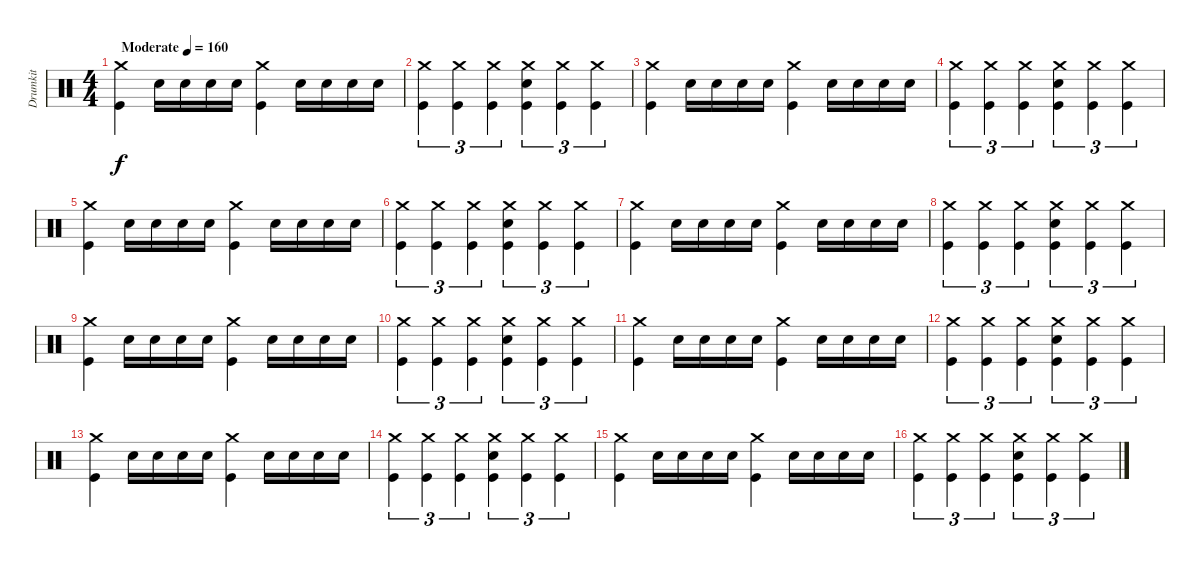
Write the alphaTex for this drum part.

\track ("Drumkit" "Drumkit") {instrument percussion}
\staff {score}
\articulation defaults
\ts (4 4)
\tempo (160 "Moderate")
\clef neutral
\ks c
("Crash medium (hit)" "Kick (hit)").4{dy f} "Snare (hit) 2".16 "Snare (hit) 2".16 "Snare (hit) 2".16 "Snare (hit) 2".16 ("Crash medium (hit)" "Kick (hit)").4 "Snare (hit) 2".16 "Snare (hit) 2".16 "Snare (hit) 2".16 "Snare (hit) 2".16 |
("Crash medium (hit)" "Kick (hit)").4{tu (3 2)} ("Crash medium (hit)" "Kick (hit)").4{tu (3 2)} ("Crash medium (hit)" "Kick (hit)").4{tu (3 2)} ("Crash medium (hit)" "Snare (hit) 2" "Kick (hit)").4{tu (3 2)} ("Crash medium (hit)" "Kick (hit)").4{tu (3 2)} ("Crash medium (hit)" "Kick (hit)").4{tu (3 2)} |
("Crash medium (hit)" "Kick (hit)").4 "Snare (hit) 2".16 "Snare (hit) 2".16 "Snare (hit) 2".16 "Snare (hit) 2".16 ("Crash medium (hit)" "Kick (hit)").4 "Snare (hit) 2".16 "Snare (hit) 2".16 "Snare (hit) 2".16 "Snare (hit) 2".16 |
("Crash medium (hit)" "Kick (hit)").4{tu (3 2)} ("Crash medium (hit)" "Kick (hit)").4{tu (3 2)} ("Crash medium (hit)" "Kick (hit)").4{tu (3 2)} ("Crash medium (hit)" "Snare (hit) 2" "Kick (hit)").4{tu (3 2)} ("Crash medium (hit)" "Kick (hit)").4{tu (3 2)} ("Crash medium (hit)" "Kick (hit)").4{tu (3 2)} |
("Crash medium (hit)" "Kick (hit)").4 "Snare (hit) 2".16 "Snare (hit) 2".16 "Snare (hit) 2".16 "Snare (hit) 2".16 ("Crash medium (hit)" "Kick (hit)").4 "Snare (hit) 2".16 "Snare (hit) 2".16 "Snare (hit) 2".16 "Snare (hit) 2".16 |
("Crash medium (hit)" "Kick (hit)").4{tu (3 2)} ("Crash medium (hit)" "Kick (hit)").4{tu (3 2)} ("Crash medium (hit)" "Kick (hit)").4{tu (3 2)} ("Crash medium (hit)" "Snare (hit) 2" "Kick (hit)").4{tu (3 2)} ("Crash medium (hit)" "Kick (hit)").4{tu (3 2)} ("Crash medium (hit)" "Kick (hit)").4{tu (3 2)} |
("Crash medium (hit)" "Kick (hit)").4 "Snare (hit) 2".16 "Snare (hit) 2".16 "Snare (hit) 2".16 "Snare (hit) 2".16 ("Crash medium (hit)" "Kick (hit)").4 "Snare (hit) 2".16 "Snare (hit) 2".16 "Snare (hit) 2".16 "Snare (hit) 2".16 |
("Crash medium (hit)" "Kick (hit)").4{tu (3 2)} ("Crash medium (hit)" "Kick (hit)").4{tu (3 2)} ("Crash medium (hit)" "Kick (hit)").4{tu (3 2)} ("Crash medium (hit)" "Snare (hit) 2" "Kick (hit)").4{tu (3 2)} ("Crash medium (hit)" "Kick (hit)").4{tu (3 2)} ("Crash medium (hit)" "Kick (hit)").4{tu (3 2)} |
("Crash medium (hit)" "Kick (hit)").4 "Snare (hit) 2".16 "Snare (hit) 2".16 "Snare (hit) 2".16 "Snare (hit) 2".16 ("Crash medium (hit)" "Kick (hit)").4 "Snare (hit) 2".16 "Snare (hit) 2".16 "Snare (hit) 2".16 "Snare (hit) 2".16 |
("Crash medium (hit)" "Kick (hit)").4{tu (3 2)} ("Crash medium (hit)" "Kick (hit)").4{tu (3 2)} ("Crash medium (hit)" "Kick (hit)").4{tu (3 2)} ("Crash medium (hit)" "Snare (hit) 2" "Kick (hit)").4{tu (3 2)} ("Crash medium (hit)" "Kick (hit)").4{tu (3 2)} ("Crash medium (hit)" "Kick (hit)").4{tu (3 2)} |
("Crash medium (hit)" "Kick (hit)").4 "Snare (hit) 2".16 "Snare (hit) 2".16 "Snare (hit) 2".16 "Snare (hit) 2".16 ("Crash medium (hit)" "Kick (hit)").4 "Snare (hit) 2".16 "Snare (hit) 2".16 "Snare (hit) 2".16 "Snare (hit) 2".16 |
("Crash medium (hit)" "Kick (hit)").4{tu (3 2)} ("Crash medium (hit)" "Kick (hit)").4{tu (3 2)} ("Crash medium (hit)" "Kick (hit)").4{tu (3 2)} ("Crash medium (hit)" "Snare (hit) 2" "Kick (hit)").4{tu (3 2)} ("Crash medium (hit)" "Kick (hit)").4{tu (3 2)} ("Crash medium (hit)" "Kick (hit)").4{tu (3 2)} |
("Crash medium (hit)" "Kick (hit)").4 "Snare (hit) 2".16 "Snare (hit) 2".16 "Snare (hit) 2".16 "Snare (hit) 2".16 ("Crash medium (hit)" "Kick (hit)").4 "Snare (hit) 2".16 "Snare (hit) 2".16 "Snare (hit) 2".16 "Snare (hit) 2".16 |
("Crash medium (hit)" "Kick (hit)").4{tu (3 2)} ("Crash medium (hit)" "Kick (hit)").4{tu (3 2)} ("Crash medium (hit)" "Kick (hit)").4{tu (3 2)} ("Crash medium (hit)" "Snare (hit) 2" "Kick (hit)").4{tu (3 2)} ("Crash medium (hit)" "Kick (hit)").4{tu (3 2)} ("Crash medium (hit)" "Kick (hit)").4{tu (3 2)} |
("Crash medium (hit)" "Kick (hit)").4 "Snare (hit) 2".16 "Snare (hit) 2".16 "Snare (hit) 2".16 "Snare (hit) 2".16 ("Crash medium (hit)" "Kick (hit)").4 "Snare (hit) 2".16 "Snare (hit) 2".16 "Snare (hit) 2".16 "Snare (hit) 2".16 |
("Crash medium (hit)" "Kick (hit)").4{tu (3 2)} ("Crash medium (hit)" "Kick (hit)").4{tu (3 2)} ("Crash medium (hit)" "Kick (hit)").4{tu (3 2)} ("Crash medium (hit)" "Snare (hit) 2" "Kick (hit)").4{tu (3 2)} ("Crash medium (hit)" "Kick (hit)").4{tu (3 2)} ("Crash medium (hit)" "Kick (hit)").4{tu (3 2)}
